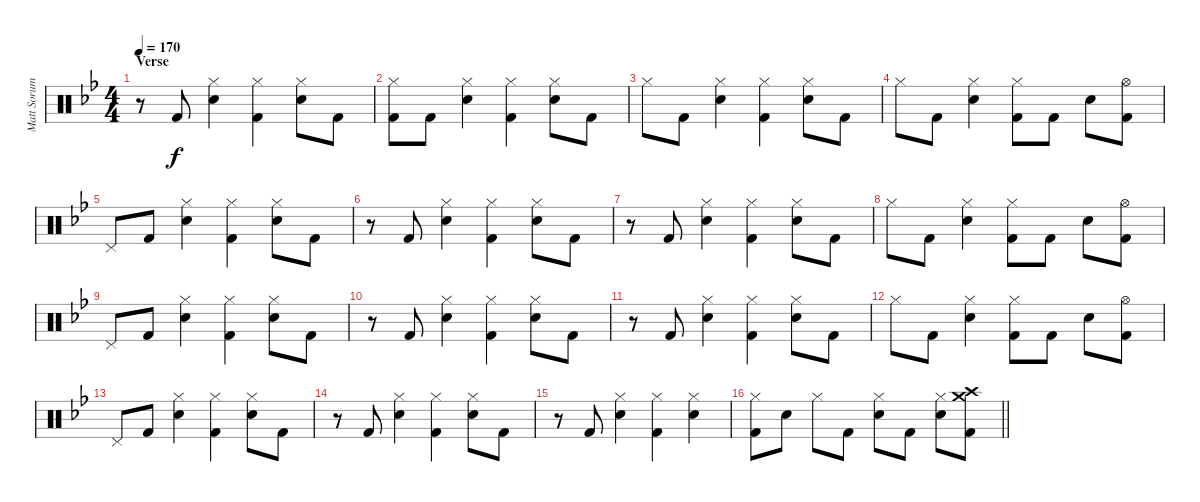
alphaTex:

\track ("Matt Sorum - Drums" "Matt Sorum") {instrument percussion}
\staff {score}
\articulation defaults
\ts (4 4)
\section ("" "Verse")
\tempo 170
\clef neutral
\ks bb
r.8{dy f} "Kick (hit) 2".8 ("Hi-Hat (closed)" "Snare (hit) 2").4 ("Hi-Hat (closed)" "Kick (hit) 2").4 ("Hi-Hat (closed)" "Snare (hit) 2").8 "Kick (hit) 2".8 |
("Hi-Hat (closed)" "Kick (hit) 2").8 "Kick (hit) 2".8 ("Hi-Hat (closed)" "Snare (hit) 2").4 ("Hi-Hat (closed)" "Kick (hit) 2").4 ("Hi-Hat (closed)" "Snare (hit) 2").8 "Kick (hit) 2".8 |
"Hi-Hat (closed)".8 "Kick (hit) 2".8 ("Hi-Hat (closed)" "Snare (hit) 2").4 ("Hi-Hat (closed)" "Kick (hit) 2").4 ("Hi-Hat (closed)" "Snare (hit) 2").8 "Kick (hit) 2".8 |
"Hi-Hat (closed)".8 "Kick (hit) 2".8 ("Hi-Hat (closed)" "Snare (hit) 2").4 ("Hi-Hat (closed)" "Kick (hit) 2").8 "Kick (hit) 2".8 "Snare (hit) 2".8 ("Hi-Hat (open)" "Kick (hit) 2").8 |
"Pedal Hi-Hat (hit)".8 "Kick (hit) 2".8 ("Hi-Hat (closed)" "Snare (hit) 2").4 ("Hi-Hat (closed)" "Kick (hit) 2").4 ("Hi-Hat (closed)" "Snare (hit) 2").8 "Kick (hit) 2".8 |
r.8 "Kick (hit) 2".8 ("Hi-Hat (closed)" "Snare (hit) 2").4 ("Hi-Hat (closed)" "Kick (hit) 2").4 ("Hi-Hat (closed)" "Snare (hit) 2").8 "Kick (hit) 2".8 |
r.8 "Kick (hit) 2".8 ("Hi-Hat (closed)" "Snare (hit) 2").4 ("Hi-Hat (closed)" "Kick (hit) 2").4 ("Hi-Hat (closed)" "Snare (hit) 2").8 "Kick (hit) 2".8 |
"Hi-Hat (closed)".8 "Kick (hit) 2".8 ("Hi-Hat (closed)" "Snare (hit) 2").4 ("Hi-Hat (closed)" "Kick (hit) 2").8 "Kick (hit) 2".8 "Snare (hit) 2".8 ("Hi-Hat (open)" "Kick (hit) 2").8 |
"Pedal Hi-Hat (hit)".8 "Kick (hit) 2".8 ("Hi-Hat (closed)" "Snare (hit) 2").4 ("Hi-Hat (closed)" "Kick (hit) 2").4 ("Hi-Hat (closed)" "Snare (hit) 2").8 "Kick (hit) 2".8 |
r.8 "Kick (hit) 2".8 ("Hi-Hat (closed)" "Snare (hit) 2").4 ("Hi-Hat (closed)" "Kick (hit) 2").4 ("Hi-Hat (closed)" "Snare (hit) 2").8 "Kick (hit) 2".8 |
r.8 "Kick (hit) 2".8 ("Hi-Hat (closed)" "Snare (hit) 2").4 ("Hi-Hat (closed)" "Kick (hit) 2").4 ("Hi-Hat (closed)" "Snare (hit) 2").8 "Kick (hit) 2".8 |
"Hi-Hat (closed)".8 "Kick (hit) 2".8 ("Hi-Hat (closed)" "Snare (hit) 2").4 ("Hi-Hat (closed)" "Kick (hit) 2").8 "Kick (hit) 2".8 "Snare (hit) 2".8 ("Hi-Hat (open)" "Kick (hit) 2").8 |
"Pedal Hi-Hat (hit)".8 "Kick (hit) 2".8 ("Hi-Hat (closed)" "Snare (hit) 2").4 ("Hi-Hat (closed)" "Kick (hit) 2").4 ("Hi-Hat (closed)" "Snare (hit) 2").8 "Kick (hit) 2".8 |
r.8 "Kick (hit) 2".8 ("Hi-Hat (closed)" "Snare (hit) 2").4 ("Hi-Hat (closed)" "Kick (hit) 2").4 ("Hi-Hat (closed)" "Snare (hit) 2").8 "Kick (hit) 2".8 |
r.8 "Kick (hit) 2".8 ("Hi-Hat (closed)" "Snare (hit) 2").4 ("Hi-Hat (closed)" "Kick (hit) 2").4 ("Hi-Hat (closed)" "Snare (hit) 2").4 |
\barLineRight lightlight
("Hi-Hat (closed)" "Kick (hit) 2").8 "Snare (hit) 2".8 "Hi-Hat (closed)".8 "Kick (hit) 2".8 ("Hi-Hat (closed)" "Snare (hit) 2").8 "Kick (hit) 2".8 ("Hi-Hat (closed)" "Snare (hit) 2").8 ("Crash medium (hit)" "Crash high (hit)" "Kick (hit) 2").8
